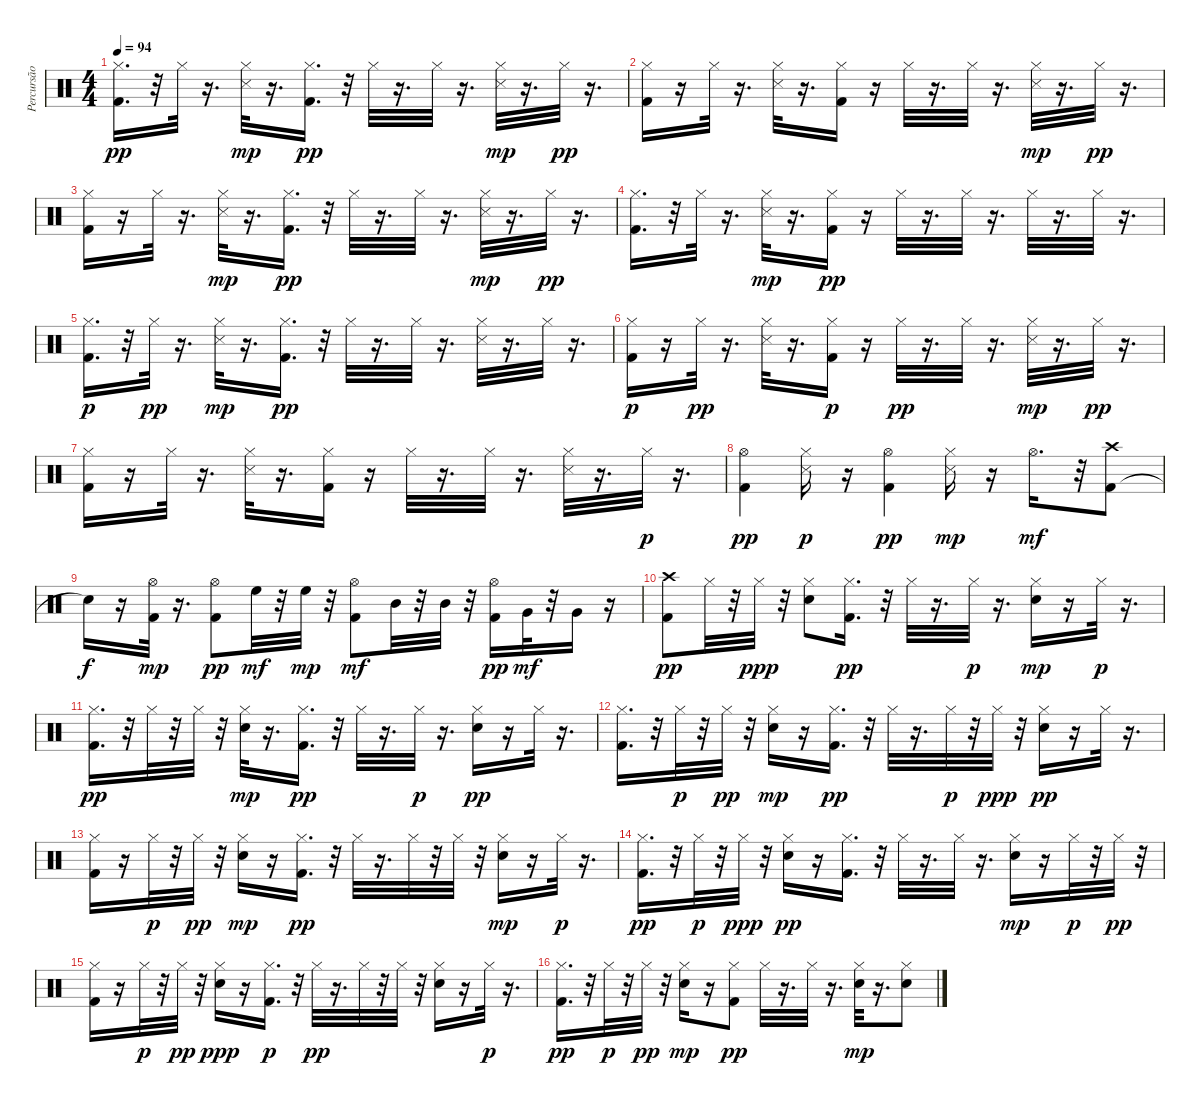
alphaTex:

\track ("Percursão" "Percursão") {instrument percussion}
\staff {score}
\articulation defaults
\ts (4 4)
\tempo 94
\clef neutral
\ks c
("Hi-Hat (closed)" "Kick (hit) 2").16{d dy pp} r.32 "Hi-Hat (closed)".32 r.16{d} ("Hi-Hat (closed)" "Snare (side stick) 3").32{dy mp} r.16{d} ("Kick (hit) 2" "Hi-Hat (closed)").16{d dy pp} r.32 "Hi-Hat (closed)".32 r.16{d} "Hi-Hat (closed)".32 r.16{d} ("Hi-Hat (closed)" "Snare (side stick) 3").32{dy mp} r.16{d} "Hi-Hat (closed)".32{dy pp} r.16{d} |
("Hi-Hat (closed)" "Kick (hit) 2").16 r.16 "Hi-Hat (closed)".32 r.16{d} ("Snare (side stick) 3" "Hi-Hat (closed)").32 r.16{d} ("Kick (hit) 2" "Hi-Hat (closed)").16 r.16 "Hi-Hat (closed)".32 r.16{d} "Hi-Hat (closed)".32 r.16{d} ("Hi-Hat (closed)" "Snare (side stick) 3").32{dy mp} r.16{d} "Hi-Hat (closed)".32{dy pp} r.16{d} |
("Kick (hit) 2" "Hi-Hat (closed)").16 r.16 "Hi-Hat (closed)".32 r.16{d} ("Hi-Hat (closed)" "Snare (side stick) 3").32{dy mp} r.16{d} ("Kick (hit) 2" "Hi-Hat (closed)").16{d dy pp} r.32 "Hi-Hat (closed)".32 r.16{d} "Hi-Hat (closed)".32 r.16{d} ("Hi-Hat (closed)" "Snare (side stick) 3").32{dy mp} r.16{d} "Hi-Hat (closed)".32{dy pp} r.16{d} |
("Kick (hit) 2" "Hi-Hat (closed)").16{d} r.32 "Hi-Hat (closed)".32 r.16{d} ("Hi-Hat (closed)" "Snare (side stick) 3").32{dy mp} r.16{d} ("Kick (hit) 2" "Hi-Hat (closed)").16{dy pp} r.16 "Hi-Hat (closed)".32 r.16{d} "Hi-Hat (closed)".32 r.16{d} "Hi-Hat (closed)".32 r.16{d} "Hi-Hat (closed)".32 r.16{d} |
("Kick (hit) 2" "Hi-Hat (closed)").16{d dy p} r.32 "Hi-Hat (closed)".32{dy pp} r.16{d} ("Hi-Hat (closed)" "Snare (side stick) 3").32{dy mp} r.16{d} ("Kick (hit) 2" "Hi-Hat (closed)").16{d dy pp} r.32 "Hi-Hat (closed)".32 r.16{d} "Hi-Hat (closed)".32 r.16{d} ("Snare (side stick) 3" "Hi-Hat (closed)").32 r.16{d} "Hi-Hat (closed)".32 r.16{d} |
("Kick (hit) 2" "Hi-Hat (closed)").16{dy p} r.16 "Hi-Hat (closed)".32{dy pp} r.16{d} ("Snare (side stick) 3" "Hi-Hat (closed)").32 r.16{d} ("Kick (hit) 2" "Hi-Hat (closed)").16{dy p} r.16 "Hi-Hat (closed)".32{dy pp} r.16{d} "Hi-Hat (closed)".32 r.16{d} ("Hi-Hat (closed)" "Snare (side stick) 3").32{dy mp} r.16{d} "Hi-Hat (closed)".32{dy pp} r.16{d} |
("Kick (hit) 2" "Hi-Hat (closed)").16 r.16 "Hi-Hat (closed)".32 r.16{d} ("Snare (side stick) 3" "Hi-Hat (closed)").32 r.16{d} ("Hi-Hat (closed)" "Kick (hit) 2").16 r.16 "Hi-Hat (closed)".32 r.16{d} "Hi-Hat (closed)".32 r.16{d} ("Snare (side stick) 3" "Hi-Hat (closed)").32 r.16{d} "Hi-Hat (closed)".32{dy p} r.16{d} |
("Hi-Hat (open)" "Kick (hit) 2").4{dy pp} ("Snare (side stick) 3" "Hi-Hat (closed)").16{dy p} r.16 ("Hi-Hat (open)" "Kick (hit) 2").4{dy pp} ("Hi-Hat (closed)" "Snare (side stick) 3").16{dy mp} r.16 "Hi-Hat (open)".16{d dy mf} r.32 ("Kick (hit) 2" "Crash high (hit)").8 |
"Snare (hit)"{t}.16{dy f} r.16 ("Kick (hit) 2" "Hi-Hat (open)").32{dy mp} r.16{d} ("Hi-Hat (open)" "Kick (hit) 2").8{dy pp} "High Floor Tom (hit)".32{dy mf} r.32 "High Floor Tom (hit)".32{dy mp} r.32 ("Kick (hit) 2" "Hi-Hat (open)").8{dy mf} "Mid Tom (hit)".32 r.32 "Mid Tom (hit)".32 r.32 ("Hi-Hat (open)" "Kick (hit) 2").16{dy pp} "Very Low Tom (hit)".32{dy mf} r.32 "Very Low Tom (hit)".16 r.16 |
("Crash high (hit)" "Kick (hit) 2").8{dy pp} "Hi-Hat (closed)".32 r.32 "Hi-Hat (closed)".32{dy ppp} r.32 ("Snare (hit) 2" "Hi-Hat (closed)").8 ("Hi-Hat (closed)" "Kick (hit) 2").16{d dy pp} r.32 "Hi-Hat (closed)".32 r.16{d} "Hi-Hat (closed)".32{dy p} r.16{d} ("Hi-Hat (closed)" "Snare (hit) 2").16{dy mp} r.16 "Hi-Hat (closed)".32{dy p} r.16{d} |
("Kick (hit) 2" "Hi-Hat (closed)").16{d dy pp} r.32 "Hi-Hat (closed)".32 r.32 "Hi-Hat (closed)".32 r.32 ("Hi-Hat (closed)" "Snare (hit) 2").32{dy mp} r.16{d} ("Hi-Hat (closed)" "Kick (hit) 2").16{d dy pp} r.32 "Hi-Hat (closed)".32 r.16{d} "Hi-Hat (closed)".32{dy p} r.16{d} ("Snare (hit) 2" "Hi-Hat (closed)").16{dy pp} r.16 "Hi-Hat (closed)".32 r.16{d} |
("Kick (hit) 2" "Hi-Hat (closed)").16{d} r.32 "Hi-Hat (closed)".32{dy p} r.32 "Hi-Hat (closed)".32{dy pp} r.32 ("Hi-Hat (closed)" "Snare (hit) 2").16{dy mp} r.16 ("Kick (hit) 2" "Hi-Hat (closed)").16{d dy pp} r.32 "Hi-Hat (closed)".32 r.16{d} "Hi-Hat (closed)".32{dy p} r.32 "Hi-Hat (closed)".32{dy ppp} r.32 ("Snare (hit) 2" "Hi-Hat (closed)").16{dy pp} r.16 "Hi-Hat (closed)".32 r.16{d} |
("Kick (hit) 2" "Hi-Hat (closed)").16 r.16 "Hi-Hat (closed)".32{dy p} r.32 "Hi-Hat (closed)".32{dy pp} r.32 ("Hi-Hat (closed)" "Snare (hit) 2").16{dy mp} r.16 ("Hi-Hat (closed)" "Kick (hit) 2").16{d dy pp} r.32 "Hi-Hat (closed)".32 r.16{d} "Hi-Hat (closed)".32 r.32 "Hi-Hat (closed)".32 r.32 ("Hi-Hat (closed)" "Snare (hit) 2").16{dy mp} r.16 "Hi-Hat (closed)".32{dy p} r.16{d} |
("Kick (hit) 2" "Hi-Hat (closed)").16{d dy pp} r.32 "Hi-Hat (closed)".32{dy p} r.32 "Hi-Hat (closed)".32{dy ppp} r.32 ("Snare (hit) 2" "Hi-Hat (closed)").16{dy pp} r.16 ("Hi-Hat (closed)" "Kick (hit) 2").16{d} r.32 "Hi-Hat (closed)".32 r.16{d} "Hi-Hat (closed)".32 r.16{d} ("Hi-Hat (closed)" "Snare (hit) 2").16{dy mp} r.16 "Hi-Hat (closed)".32{dy p} r.32 "Hi-Hat (closed)".32{dy pp} r.32 |
("Kick (hit) 2" "Hi-Hat (closed)").16 r.16 "Hi-Hat (closed)".32{dy p} r.32 "Hi-Hat (closed)".32{dy pp} r.32 ("Snare (hit) 2" "Hi-Hat (closed)").16{dy ppp} r.16 ("Kick (hit) 2" "Hi-Hat (closed)").16{d dy p} r.32 "Hi-Hat (closed)".32{dy pp} r.16{d} "Hi-Hat (closed)".32 r.32 "Hi-Hat (closed)".32 r.32 ("Snare (hit) 2" "Hi-Hat (closed)").16 r.16 "Hi-Hat (closed)".32{dy p} r.16{d} |
("Kick (hit) 2" "Hi-Hat (closed)").16{d dy pp} r.32 "Hi-Hat (closed)".32{dy p} r.32 "Hi-Hat (closed)".32{dy pp} r.32 ("Hi-Hat (closed)" "Snare (hit) 2").16{dy mp} r.16 ("Hi-Hat (closed)" "Kick (hit) 2").8{dy pp} "Hi-Hat (closed)".32 r.16{d} "Hi-Hat (closed)".32 r.16{d} ("Hi-Hat (closed)" "Snare (hit) 2").32{dy mp} r.16{d} ("Hi-Hat (closed)" "Snare (hit) 2").8
